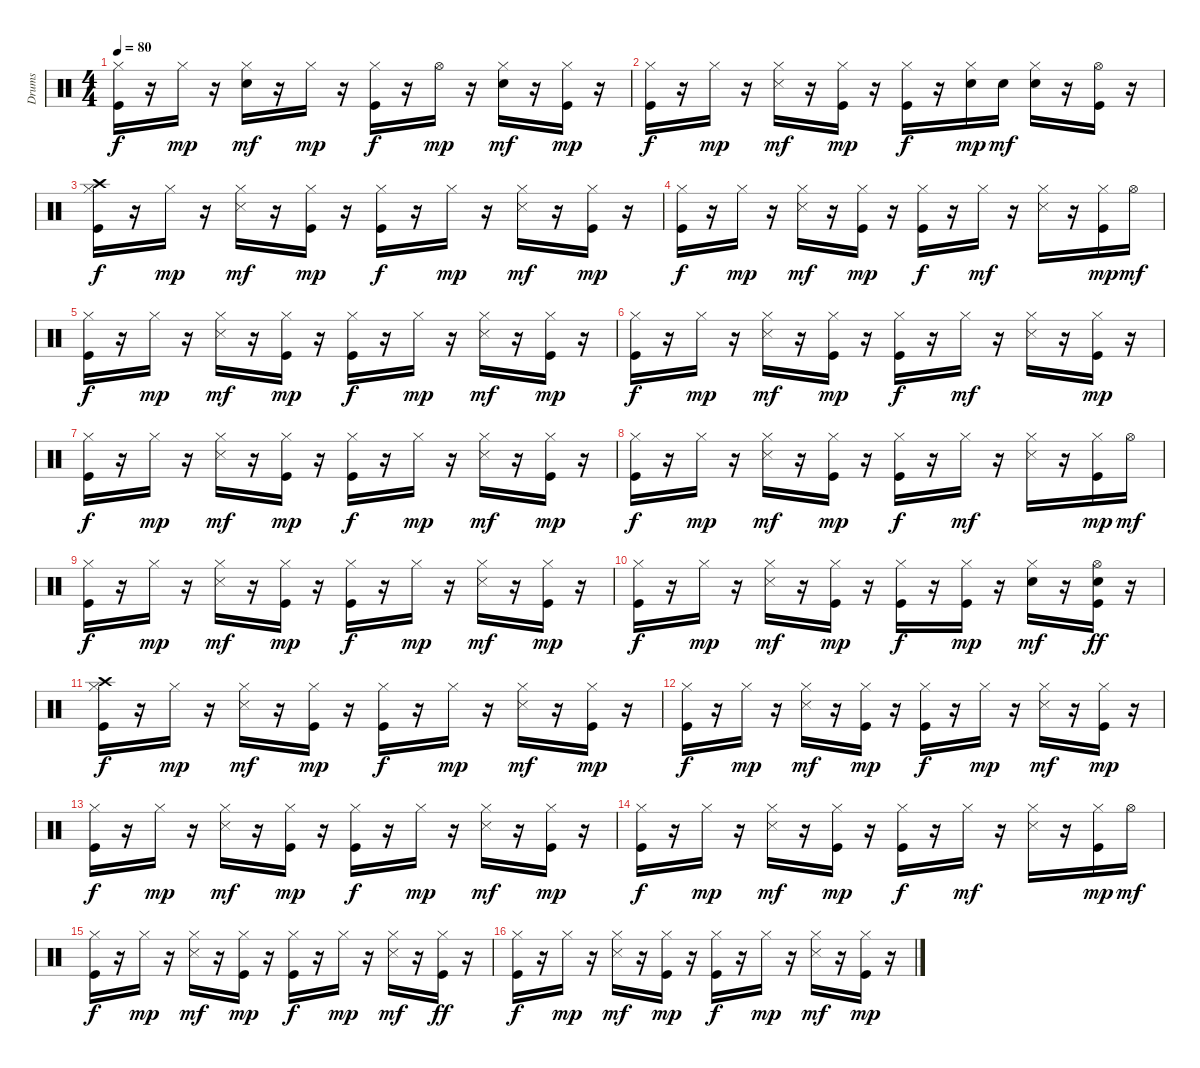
\track ("Drums  " "Drums  ") {instrument percussion}
\staff {score}
\articulation defaults
\ts (4 4)
\tempo 80
\clef neutral
\ks c
("Kick (hit)" "Hi-Hat (closed)").16{dy f} r.16 "Hi-Hat (closed)".16{dy mp} r.16 ("Snare (hit) 2" "Hi-Hat (closed)").16{dy mf} r.16 "Hi-Hat (closed)".16{dy mp} r.16 ("Kick (hit)" "Hi-Hat (closed)").16{dy f} r.16 "Hi-Hat (open)".16{dy mp} r.16 ("Snare (hit) 2" "Hi-Hat (closed)").16{dy mf} r.16 ("Kick (hit)" "Hi-Hat (closed)").16{dy mp} r.16 |
("Kick (hit)" "Hi-Hat (closed)").16{dy f} r.16 "Hi-Hat (closed)".16{dy mp} r.16 ("Hi-Hat (closed)" "Snare (side stick) 3").16{dy mf} r.16 ("Kick (hit)" "Hi-Hat (closed)").16{dy mp} r.16 ("Kick (hit)" "Hi-Hat (closed)").16{dy f} r.16 ("Snare (hit) 2" "Hi-Hat (closed)").16{dy mp} "Snare (hit) 2".16{dy mf} ("Snare (hit) 2" "Hi-Hat (closed)").16 r.16 ("Kick (hit)" "Hi-Hat (open)").16 r.16 |
("Kick (hit)" "Hi-Hat (closed)" "Crash high (hit)").16{dy f} r.16 "Hi-Hat (closed)".16{dy mp} r.16 ("Hi-Hat (closed)" "Snare (side stick) 3").16{dy mf} r.16 ("Kick (hit)" "Hi-Hat (closed)").16{dy mp} r.16 ("Kick (hit)" "Hi-Hat (closed)").16{dy f} r.16 "Hi-Hat (closed)".16{dy mp} r.16 ("Hi-Hat (closed)" "Snare (side stick) 3").16{dy mf} r.16 ("Kick (hit)" "Hi-Hat (closed)").16{dy mp} r.16 |
("Kick (hit)" "Hi-Hat (closed)").16{dy f} r.16 "Hi-Hat (closed)".16{dy mp} r.16 ("Hi-Hat (closed)" "Snare (side stick) 3").16{dy mf} r.16 ("Kick (hit)" "Hi-Hat (closed)").16{dy mp} r.16 ("Kick (hit)" "Hi-Hat (closed)").16{dy f} r.16 "Hi-Hat (closed)".16{dy mf} r.16 ("Hi-Hat (closed)" "Snare (side stick) 3").16 r.16 ("Kick (hit)" "Hi-Hat (closed)").16{dy mp} "Hi-Hat (open)".16{dy mf} |
("Kick (hit)" "Hi-Hat (closed)").16{dy f} r.16 "Hi-Hat (closed)".16{dy mp} r.16 ("Hi-Hat (closed)" "Snare (side stick) 3").16{dy mf} r.16 ("Kick (hit)" "Hi-Hat (closed)").16{dy mp} r.16 ("Kick (hit)" "Hi-Hat (closed)").16{dy f} r.16 "Hi-Hat (closed)".16{dy mp} r.16 ("Hi-Hat (closed)" "Snare (side stick) 3").16{dy mf} r.16 ("Kick (hit)" "Hi-Hat (closed)").16{dy mp} r.16 |
("Kick (hit)" "Hi-Hat (closed)").16{dy f} r.16 "Hi-Hat (closed)".16{dy mp} r.16 ("Hi-Hat (closed)" "Snare (side stick) 3").16{dy mf} r.16 ("Kick (hit)" "Hi-Hat (closed)").16{dy mp} r.16 ("Kick (hit)" "Hi-Hat (closed)").16{dy f} r.16 "Hi-Hat (closed)".16{dy mf} r.16 ("Hi-Hat (closed)" "Snare (side stick) 3").16 r.16 ("Kick (hit)" "Hi-Hat (closed)").16{dy mp} r.16 |
("Kick (hit)" "Hi-Hat (closed)").16{dy f} r.16 "Hi-Hat (closed)".16{dy mp} r.16 ("Hi-Hat (closed)" "Snare (side stick) 3").16{dy mf} r.16 ("Kick (hit)" "Hi-Hat (closed)").16{dy mp} r.16 ("Kick (hit)" "Hi-Hat (closed)").16{dy f} r.16 "Hi-Hat (closed)".16{dy mp} r.16 ("Hi-Hat (closed)" "Snare (side stick) 3").16{dy mf} r.16 ("Kick (hit)" "Hi-Hat (closed)").16{dy mp} r.16 |
("Kick (hit)" "Hi-Hat (closed)").16{dy f} r.16 "Hi-Hat (closed)".16{dy mp} r.16 ("Hi-Hat (closed)" "Snare (side stick) 3").16{dy mf} r.16 ("Kick (hit)" "Hi-Hat (closed)").16{dy mp} r.16 ("Kick (hit)" "Hi-Hat (closed)").16{dy f} r.16 "Hi-Hat (closed)".16{dy mf} r.16 ("Hi-Hat (closed)" "Snare (side stick) 3").16 r.16 ("Kick (hit)" "Hi-Hat (closed)").16{dy mp} "Hi-Hat (open)".16{dy mf} |
("Kick (hit)" "Hi-Hat (closed)").16{dy f} r.16 "Hi-Hat (closed)".16{dy mp} r.16 ("Hi-Hat (closed)" "Snare (side stick) 3").16{dy mf} r.16 ("Kick (hit)" "Hi-Hat (closed)").16{dy mp} r.16 ("Kick (hit)" "Hi-Hat (closed)").16{dy f} r.16 "Hi-Hat (closed)".16{dy mp} r.16 ("Hi-Hat (closed)" "Snare (side stick) 3").16{dy mf} r.16 ("Kick (hit)" "Hi-Hat (closed)").16{dy mp} r.16 |
("Kick (hit)" "Hi-Hat (closed)").16{dy f} r.16 "Hi-Hat (closed)".16{dy mp} r.16 ("Hi-Hat (closed)" "Snare (side stick) 3").16{dy mf} r.16 ("Kick (hit)" "Hi-Hat (closed)").16{dy mp} r.16 ("Kick (hit)" "Hi-Hat (closed)").16{dy f} r.16 ("Kick (hit)" "Hi-Hat (closed)").16{dy mp} r.16 ("Snare (hit) 2" "Hi-Hat (closed)").16{dy mf} r.16 ("Kick (hit)" "Snare (hit) 2" "Hi-Hat (open)").16{dy ff} r.16 |
("Kick (hit)" "Hi-Hat (closed)" "Crash high (hit)").16{dy f} r.16 "Hi-Hat (closed)".16{dy mp} r.16 ("Hi-Hat (closed)" "Snare (side stick) 3").16{dy mf} r.16 ("Kick (hit)" "Hi-Hat (closed)").16{dy mp} r.16 ("Kick (hit)" "Hi-Hat (closed)").16{dy f} r.16 "Hi-Hat (closed)".16{dy mp} r.16 ("Hi-Hat (closed)" "Snare (side stick) 3").16{dy mf} r.16 ("Kick (hit)" "Hi-Hat (closed)").16{dy mp} r.16 |
("Kick (hit)" "Hi-Hat (closed)").16{dy f} r.16 "Hi-Hat (closed)".16{dy mp} r.16 ("Hi-Hat (closed)" "Snare (side stick) 3").16{dy mf} r.16 ("Kick (hit)" "Hi-Hat (closed)").16{dy mp} r.16 ("Kick (hit)" "Hi-Hat (closed)").16{dy f} r.16 "Hi-Hat (closed)".16{dy mp} r.16 ("Hi-Hat (closed)" "Snare (side stick) 3").16{dy mf} r.16 ("Kick (hit)" "Hi-Hat (closed)").16{dy mp} r.16 |
("Kick (hit)" "Hi-Hat (closed)").16{dy f} r.16 "Hi-Hat (closed)".16{dy mp} r.16 ("Hi-Hat (closed)" "Snare (side stick) 3").16{dy mf} r.16 ("Kick (hit)" "Hi-Hat (closed)").16{dy mp} r.16 ("Kick (hit)" "Hi-Hat (closed)").16{dy f} r.16 "Hi-Hat (closed)".16{dy mp} r.16 ("Hi-Hat (closed)" "Snare (side stick) 3").16{dy mf} r.16 ("Kick (hit)" "Hi-Hat (closed)").16{dy mp} r.16 |
("Kick (hit)" "Hi-Hat (closed)").16{dy f} r.16 "Hi-Hat (closed)".16{dy mp} r.16 ("Hi-Hat (closed)" "Snare (side stick) 3").16{dy mf} r.16 ("Kick (hit)" "Hi-Hat (closed)").16{dy mp} r.16 ("Kick (hit)" "Hi-Hat (closed)").16{dy f} r.16 "Hi-Hat (closed)".16{dy mf} r.16 ("Hi-Hat (closed)" "Snare (side stick) 3").16 r.16 ("Kick (hit)" "Hi-Hat (closed)").16{dy mp} "Hi-Hat (open)".16{dy mf} |
("Kick (hit)" "Hi-Hat (closed)").16{dy f} r.16 "Hi-Hat (closed)".16{dy mp} r.16 ("Hi-Hat (closed)" "Snare (side stick) 3").16{dy mf} r.16 ("Kick (hit)" "Hi-Hat (closed)").16{dy mp} r.16 ("Kick (hit)" "Hi-Hat (closed)").16{dy f} r.16 "Hi-Hat (closed)".16{dy mp} r.16 ("Hi-Hat (closed)" "Snare (side stick) 3").16{dy mf} r.16 ("Kick (hit)" "Hi-Hat (closed)").16{dy ff} r.16 |
("Kick (hit)" "Hi-Hat (closed)").16{dy f} r.16 "Hi-Hat (closed)".16{dy mp} r.16 ("Hi-Hat (closed)" "Snare (side stick) 3").16{dy mf} r.16 ("Kick (hit)" "Hi-Hat (closed)").16{dy mp} r.16 ("Kick (hit)" "Hi-Hat (closed)").16{dy f} r.16 "Hi-Hat (closed)".16{dy mp} r.16 ("Hi-Hat (closed)" "Snare (side stick) 3").16{dy mf} r.16 ("Kick (hit)" "Hi-Hat (closed)").16{dy mp} r.16
